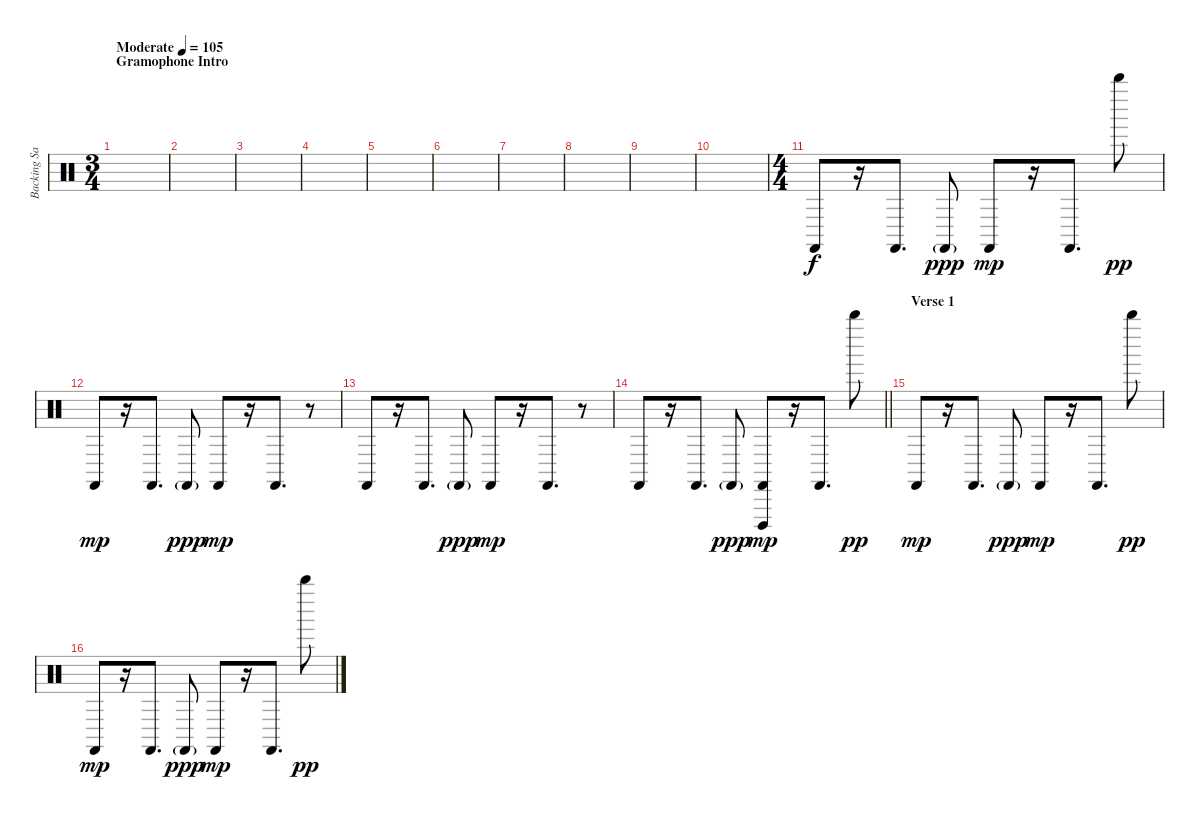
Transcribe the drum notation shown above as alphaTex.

\track ("Backing Samples " "Backing Sa") {instrument percussion}
\staff {score}
\articulation defaults
\ts (3 4)
\section ("" "Gramophone Intro")
\tempo (105 "Moderate")
\clef neutral
\ks c
|
|
|
|
|
|
|
|
|
|
\ts (4 4)
"Castanets (hit)".8 r.16 "Castanets (hit)".8{d} "Castanets (hit)"{g}.8{dy ppp} "Castanets (hit)".8{dy mp} r.16 "Castanets (hit)".8{d} "Whistle high (hit)".8{dy pp} |
"Castanets (hit)".8{dy mp} r.16 "Castanets (hit)".8{d} "Castanets (hit)"{g}.8{dy ppp} "Castanets (hit)".8{dy mp} r.16 "Castanets (hit)".8{d} r.8 |
"Castanets (hit)".8 r.16 "Castanets (hit)".8{d} "Castanets (hit)"{g}.8{dy ppp} "Castanets (hit)".8{dy mp} r.16 "Castanets (hit)".8{d} r.8 |
\barLineRight lightlight "Castanets (hit)".8
r.16 "Castanets (hit)".8{d} "Castanets (hit)"{g}.8{dy ppp} ("Cuica (open)" "Castanets (hit)").8{dy mp} r.16 "Castanets (hit)".8{d} "Whistle high (hit)".8{dy pp} |
\section ("" "Verse 1")
"Castanets (hit)".8{dy mp} r.16 "Castanets (hit)".8{d} "Castanets (hit)"{g}.8{dy ppp} "Castanets (hit)".8{dy mp} r.16 "Castanets (hit)".8{d} "Whistle high (hit)".8{dy pp} |
"Castanets (hit)".8{dy mp} r.16 "Castanets (hit)".8{d} "Castanets (hit)"{g}.8{dy ppp} "Castanets (hit)".8{dy mp} r.16 "Castanets (hit)".8{d} "Whistle high (hit)".8{dy pp}
